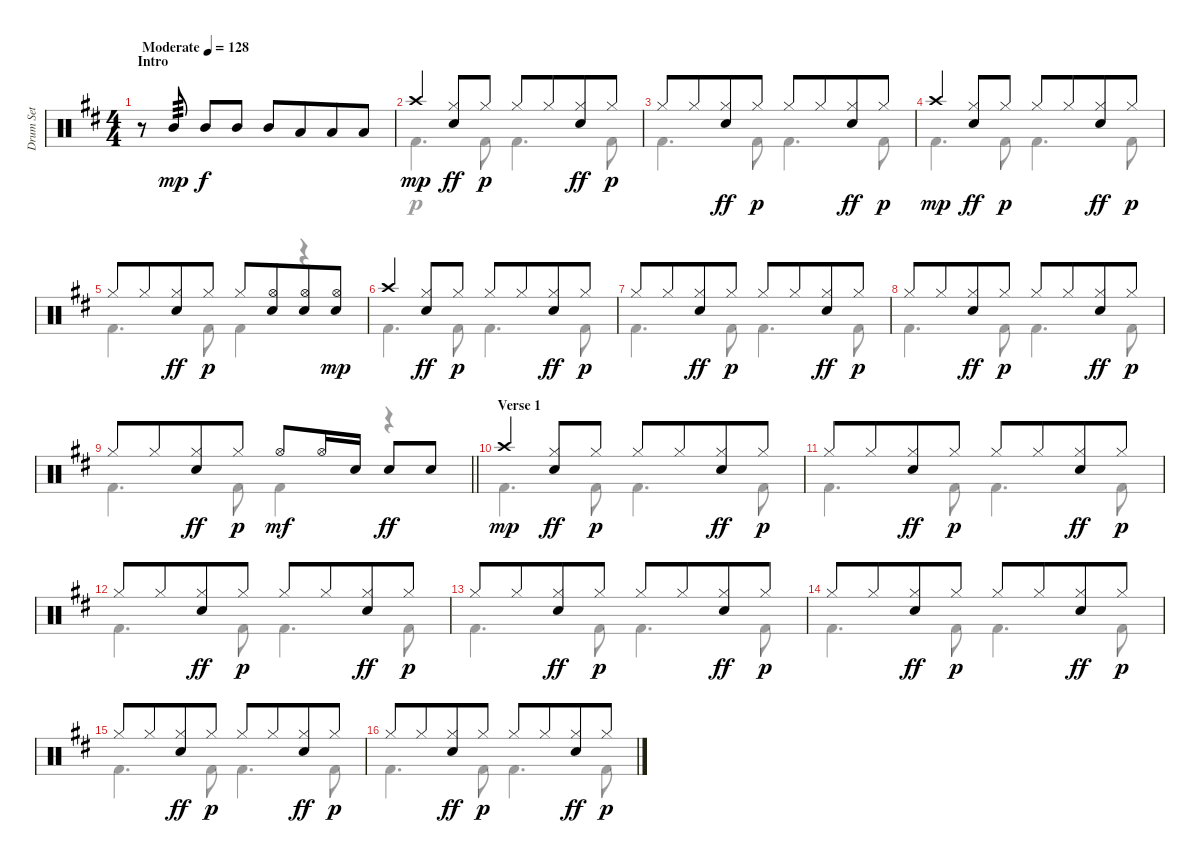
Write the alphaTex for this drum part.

\track ("Drum Set" "Drum Set") {instrument percussion}
\staff {score}
\articulation defaults
\voice
\ts (4 4)
\section ("" "Intro")
\tempo (128 "Moderate")
\clef neutral
\ks bminor
r.8{dy mp} "Mid Tom (hit)".8{tp 3 beam Up} "Mid Tom (hit)".8{dy f beam Up} "Mid Tom (hit)".8{beam Up} "Mid Tom (hit)".8{beam Up} "Low Tom (hit)".8{beam Up beam merge} "Low Tom (hit)".8{beam Up} "Low Tom (hit)".8{beam Up} |
"Crash high (hit)".4{dy mp} ("Hi-Hat (closed)" "Electric Snare (hit)").8{dy ff} "Hi-Hat (closed)".8{dy p} "Hi-Hat (closed)".8 "Hi-Hat (closed)".8{beam merge} ("Hi-Hat (closed)" "Electric Snare (hit)").8{dy ff} "Hi-Hat (closed)".8{dy p} |
"Hi-Hat (closed)".8 "Hi-Hat (closed)".8{beam merge} ("Hi-Hat (closed)" "Electric Snare (hit)").8{dy ff} "Hi-Hat (closed)".8{dy p} "Hi-Hat (closed)".8 "Hi-Hat (closed)".8{beam merge} ("Hi-Hat (closed)" "Electric Snare (hit)").8{dy ff} "Hi-Hat (closed)".8{dy p} |
"Crash high (hit)".4{dy mp} ("Hi-Hat (closed)" "Electric Snare (hit)").8{dy ff} "Hi-Hat (closed)".8{dy p} "Hi-Hat (closed)".8 "Hi-Hat (closed)".8{beam merge} ("Hi-Hat (closed)" "Electric Snare (hit)").8{dy ff} "Hi-Hat (closed)".8{dy p} |
"Hi-Hat (closed)".8 "Hi-Hat (closed)".8{beam merge} ("Hi-Hat (closed)" "Electric Snare (hit)").8{dy ff} "Hi-Hat (closed)".8{dy p} "Hi-Hat (closed)".8 ("Electric Snare (hit)" "Hi-Hat (open)").8{beam merge} ("Electric Snare (hit)" "Hi-Hat (open)").8 ("Electric Snare (hit)" "Hi-Hat (open)").8{dy mp} |
"Crash high (hit)".4 ("Hi-Hat (closed)" "Electric Snare (hit)").8{dy ff} "Hi-Hat (closed)".8{dy p} "Hi-Hat (closed)".8 "Hi-Hat (closed)".8{beam merge} ("Hi-Hat (closed)" "Electric Snare (hit)").8{dy ff} "Hi-Hat (closed)".8{dy p} |
"Hi-Hat (closed)".8 "Hi-Hat (closed)".8{beam merge} ("Hi-Hat (closed)" "Electric Snare (hit)").8{dy ff} "Hi-Hat (closed)".8{dy p} "Hi-Hat (closed)".8 "Hi-Hat (closed)".8{beam merge} ("Hi-Hat (closed)" "Electric Snare (hit)").8{dy ff} "Hi-Hat (closed)".8{dy p} |
"Hi-Hat (closed)".8 "Hi-Hat (closed)".8{beam merge} ("Hi-Hat (closed)" "Electric Snare (hit)").8{dy ff} "Hi-Hat (closed)".8{dy p} "Hi-Hat (closed)".8 "Hi-Hat (closed)".8{beam merge} ("Hi-Hat (closed)" "Electric Snare (hit)").8{dy ff} "Hi-Hat (closed)".8{dy p} |
\barLineRight lightlight "Hi-Hat (closed)".8 "Hi-Hat (closed)".8{beam merge}
("Hi-Hat (closed)" "Electric Snare (hit)").8{dy ff} "Hi-Hat (closed)".8{dy p} "Hi-Hat (open)".8{dy mf} "Hi-Hat (open)".16 "Electric Snare (hit)".16{beam split} "Electric Snare (hit)".8{dy ff} "Electric Snare (hit)".8 |
\section ("" "Verse 1")
"Crash high (hit)".4{dy mp} ("Hi-Hat (closed)" "Electric Snare (hit)").8{dy ff} "Hi-Hat (closed)".8{dy p} "Hi-Hat (closed)".8 "Hi-Hat (closed)".8{beam merge} ("Hi-Hat (closed)" "Electric Snare (hit)").8{dy ff} "Hi-Hat (closed)".8{dy p} |
"Hi-Hat (closed)".8 "Hi-Hat (closed)".8{beam merge} ("Hi-Hat (closed)" "Electric Snare (hit)").8{dy ff} "Hi-Hat (closed)".8{dy p} "Hi-Hat (closed)".8 "Hi-Hat (closed)".8{beam merge} ("Hi-Hat (closed)" "Electric Snare (hit)").8{dy ff} "Hi-Hat (closed)".8{dy p} |
"Hi-Hat (closed)".8 "Hi-Hat (closed)".8{beam merge} ("Hi-Hat (closed)" "Electric Snare (hit)").8{dy ff} "Hi-Hat (closed)".8{dy p} "Hi-Hat (closed)".8 "Hi-Hat (closed)".8{beam merge} ("Hi-Hat (closed)" "Electric Snare (hit)").8{dy ff} "Hi-Hat (closed)".8{dy p} |
"Hi-Hat (closed)".8 "Hi-Hat (closed)".8{beam merge} ("Hi-Hat (closed)" "Electric Snare (hit)").8{dy ff} "Hi-Hat (closed)".8{dy p} "Hi-Hat (closed)".8 "Hi-Hat (closed)".8{beam merge} ("Hi-Hat (closed)" "Electric Snare (hit)").8{dy ff} "Hi-Hat (closed)".8{dy p} |
"Hi-Hat (closed)".8 "Hi-Hat (closed)".8{beam merge} ("Hi-Hat (closed)" "Electric Snare (hit)").8{dy ff} "Hi-Hat (closed)".8{dy p} "Hi-Hat (closed)".8 "Hi-Hat (closed)".8{beam merge} ("Hi-Hat (closed)" "Electric Snare (hit)").8{dy ff} "Hi-Hat (closed)".8{dy p} |
"Hi-Hat (closed)".8 "Hi-Hat (closed)".8{beam merge} ("Hi-Hat (closed)" "Electric Snare (hit)").8{dy ff} "Hi-Hat (closed)".8{dy p} "Hi-Hat (closed)".8 "Hi-Hat (closed)".8{beam merge} ("Hi-Hat (closed)" "Electric Snare (hit)").8{dy ff} "Hi-Hat (closed)".8{dy p} |
"Hi-Hat (closed)".8 "Hi-Hat (closed)".8{beam merge} ("Hi-Hat (closed)" "Electric Snare (hit)").8{dy ff} "Hi-Hat (closed)".8{dy p} "Hi-Hat (closed)".8 "Hi-Hat (closed)".8{beam merge} ("Hi-Hat (closed)" "Electric Snare (hit)").8{dy ff} "Hi-Hat (closed)".8{dy p}
\voice
\clef neutral
\ottava regular
\simile none
\ks bminor
|
"Kick (hit) 2".4{d} "Kick (hit) 2".8 "Kick (hit) 2".4{d} "Kick (hit) 2".8 |
"Kick (hit) 2".4{d} "Kick (hit) 2".8 "Kick (hit) 2".4{d} "Kick (hit) 2".8 |
"Kick (hit) 2".4{d} "Kick (hit) 2".8 "Kick (hit) 2".4{d} "Kick (hit) 2".8 |
"Kick (hit) 2".4{d} "Kick (hit) 2".8 "Kick (hit) 2".4 r.4 |
"Kick (hit) 2".4{d} "Kick (hit) 2".8 "Kick (hit) 2".4{d} "Kick (hit) 2".8 |
"Kick (hit) 2".4{d} "Kick (hit) 2".8 "Kick (hit) 2".4{d} "Kick (hit) 2".8 |
"Kick (hit) 2".4{d} "Kick (hit) 2".8 "Kick (hit) 2".4{d} "Kick (hit) 2".8 |
\barLineRight lightlight "Kick (hit) 2".4{d} "Kick (hit) 2".8 "Kick (hit) 2".4
r.4 |
"Kick (hit) 2".4{d} "Kick (hit) 2".8 "Kick (hit) 2".4{d} "Kick (hit) 2".8 |
"Kick (hit) 2".4{d} "Kick (hit) 2".8 "Kick (hit) 2".4{d} "Kick (hit) 2".8 |
"Kick (hit) 2".4{d} "Kick (hit) 2".8 "Kick (hit) 2".4{d} "Kick (hit) 2".8 |
"Kick (hit) 2".4{d} "Kick (hit) 2".8 "Kick (hit) 2".4{d} "Kick (hit) 2".8 |
"Kick (hit) 2".4{d} "Kick (hit) 2".8 "Kick (hit) 2".4{d} "Kick (hit) 2".8 |
"Kick (hit) 2".4{d} "Kick (hit) 2".8 "Kick (hit) 2".4{d} "Kick (hit) 2".8 |
"Kick (hit) 2".4{d} "Kick (hit) 2".8 "Kick (hit) 2".4{d} "Kick (hit) 2".8
